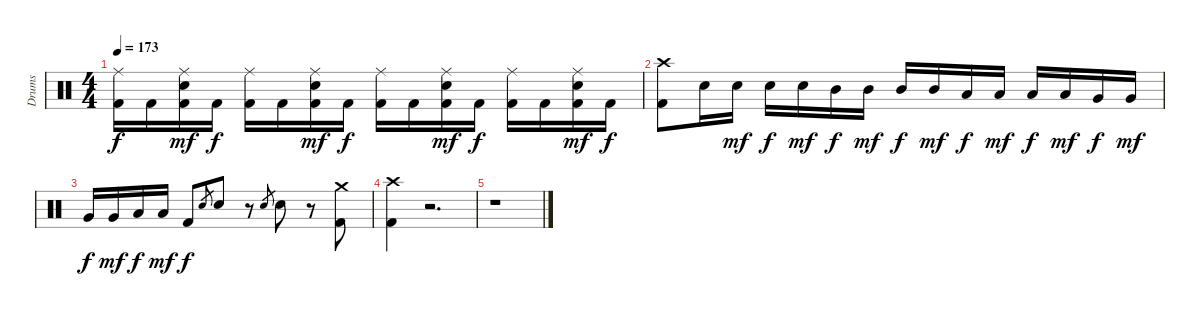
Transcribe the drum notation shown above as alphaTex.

\track ("Drums" "Drums") {instrument percussion}
\staff {score}
\articulation defaults
\ts (4 4)
\tempo 173
\clef neutral
\ks c
("Kick (hit) 2" "Ride (middle)").16{dy f} "Kick (hit) 2".16 ("Kick (hit) 2" "Ride (middle)" "Electric Snare (hit)").16{dy mf} "Kick (hit) 2".16{dy f} ("Kick (hit) 2" "Ride (middle)").16 "Kick (hit) 2".16 ("Kick (hit) 2" "Ride (middle)" "Electric Snare (hit)").16{dy mf} "Kick (hit) 2".16{dy f} ("Kick (hit) 2" "Ride (middle)").16 "Kick (hit) 2".16 ("Kick (hit) 2" "Ride (middle)" "Electric Snare (hit)").16{dy mf} "Kick (hit) 2".16{dy f} ("Kick (hit) 2" "Ride (middle)").16 "Kick (hit) 2".16 ("Kick (hit) 2" "Ride (middle)" "Electric Snare (hit)").16{dy mf} "Kick (hit) 2".16{dy f} |
("Kick (hit) 2" "Crash high (hit)").8 "Electric Snare (hit)".16 "Electric Snare (hit)".16{dy mf} "Electric Snare (hit)".16{dy f} "Electric Snare (hit)".16{dy mf} "Mid Tom (hit)".16{dy f} "Mid Tom (hit)".16{dy mf} "Mid Tom (hit)".16{dy f} "Mid Tom (hit)".16{dy mf} "Low Tom (hit)".16{dy f} "Low Tom (hit)".16{dy mf} "Low Tom (hit)".16{dy f} "Low Tom (hit)".16{dy mf} "Very Low Tom (hit)".16{dy f} "Very Low Tom (hit)".16{dy mf} |
"Very Low Tom (hit)".16{dy f} "Very Low Tom (hit)".16{dy mf} "Low Floor Tom (hit)".16{dy f} "Low Floor Tom (hit)".16{dy mf} "Kick (hit) 2".8{dy f} "Electric Snare (hit)".8{gr} "Electric Snare (hit)".8 r.8 "Electric Snare (hit)".8{gr} "Electric Snare (hit)".8 r.8 ("Kick (hit) 2" "Crash medium (hit)").8 |
("Kick (hit) 2" "Crash high (hit)").4 r.2{d} |
r.1
